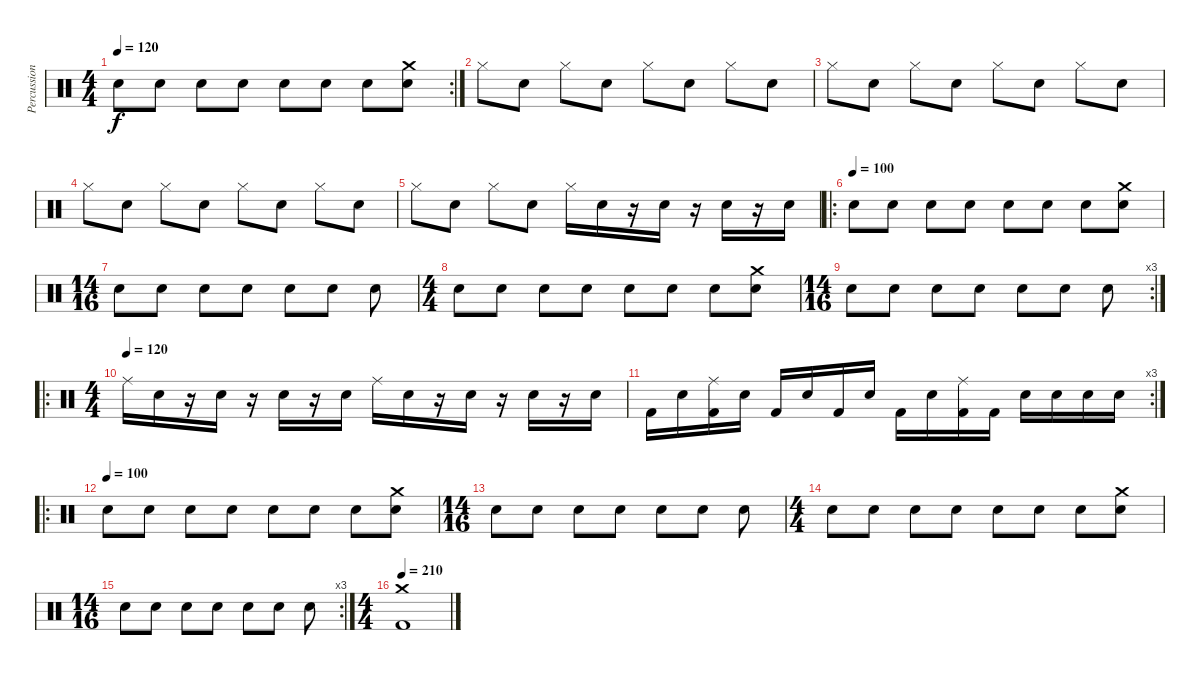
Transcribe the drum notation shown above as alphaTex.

\track ("Percussion" "Percussion") {instrument percussion}
\staff {score}
\articulation defaults
\rc 2
\ts (4 4)
\tempo 120
\clef neutral
\ks c "Electric Snare (hit)".8{dy f} "Electric Snare (hit)".8 "Electric Snare (hit)".8 "Electric Snare (hit)".8 "Electric Snare (hit)".8 "Electric Snare (hit)".8 "Electric Snare (hit)".8
("Crash medium (hit)" "Electric Snare (hit)").8 |
"Hi-Hat (closed)".8 "Electric Snare (hit)".8 "Hi-Hat (closed)".8 "Electric Snare (hit)".8 "Hi-Hat (closed)".8 "Electric Snare (hit)".8 "Hi-Hat (closed)".8 "Electric Snare (hit)".8 |
"Hi-Hat (closed)".8 "Electric Snare (hit)".8 "Hi-Hat (closed)".8 "Electric Snare (hit)".8 "Hi-Hat (closed)".8 "Electric Snare (hit)".8 "Hi-Hat (closed)".8 "Electric Snare (hit)".8 |
"Hi-Hat (closed)".8 "Electric Snare (hit)".8 "Hi-Hat (closed)".8 "Electric Snare (hit)".8 "Hi-Hat (closed)".8 "Electric Snare (hit)".8 "Hi-Hat (closed)".8 "Electric Snare (hit)".8 |
"Hi-Hat (closed)".8 "Electric Snare (hit)".8 "Hi-Hat (closed)".8 "Electric Snare (hit)".8 "Hi-Hat (closed)".16 "Electric Snare (hit)".16 r.16 "Electric Snare (hit)".16 r.16 "Electric Snare (hit)".16 r.16 "Electric Snare (hit)".16 |
\ro
\tempo (100)
"Electric Snare (hit)".8 "Electric Snare (hit)".8 "Electric Snare (hit)".8 "Electric Snare (hit)".8 "Electric Snare (hit)".8 "Electric Snare (hit)".8 "Electric Snare (hit)".8 ("Crash medium (hit)" "Electric Snare (hit)").8 |
\ts (14 16)
"Electric Snare (hit)".8 "Electric Snare (hit)".8 "Electric Snare (hit)".8 "Electric Snare (hit)".8 "Electric Snare (hit)".8 "Electric Snare (hit)".8 "Electric Snare (hit)".8 |
\ts (4 4)
"Electric Snare (hit)".8 "Electric Snare (hit)".8 "Electric Snare (hit)".8 "Electric Snare (hit)".8 "Electric Snare (hit)".8 "Electric Snare (hit)".8 "Electric Snare (hit)".8 ("Crash medium (hit)" "Electric Snare (hit)").8 |
\rc 3
\ts (14 16)
"Electric Snare (hit)".8 "Electric Snare (hit)".8 "Electric Snare (hit)".8 "Electric Snare (hit)".8 "Electric Snare (hit)".8 "Electric Snare (hit)".8 "Electric Snare (hit)".8 |
\ro
\ts (4 4)
\tempo (120)
"Ride (middle)".16 "Electric Snare (hit)".16 r.16 "Electric Snare (hit)".16 r.16 "Electric Snare (hit)".16 r.16 "Electric Snare (hit)".16 "Ride (middle)".16 "Electric Snare (hit)".16 r.16 "Electric Snare (hit)".16 r.16 "Electric Snare (hit)".16 r.16 "Electric Snare (hit)".16 |
\rc 3 "Kick (hit) 2".16 "Electric Snare (hit)".16
("Ride (middle)" "Kick (hit) 2").16 "Electric Snare (hit)".16 "Kick (hit) 2".16 "Electric Snare (hit)".16 "Kick (hit) 2".16 "Electric Snare (hit)".16 "Kick (hit) 2".16 "Electric Snare (hit)".16 ("Ride (middle)" "Kick (hit) 2").16 "Kick (hit) 2".16 "Electric Snare (hit)".16 "Electric Snare (hit)".16 "Electric Snare (hit)".16 "Electric Snare (hit)".16 |
\ro
\tempo (100)
"Electric Snare (hit)".8 "Electric Snare (hit)".8 "Electric Snare (hit)".8 "Electric Snare (hit)".8 "Electric Snare (hit)".8 "Electric Snare (hit)".8 "Electric Snare (hit)".8 ("Crash medium (hit)" "Electric Snare (hit)").8 |
\ts (14 16)
"Electric Snare (hit)".8 "Electric Snare (hit)".8 "Electric Snare (hit)".8 "Electric Snare (hit)".8 "Electric Snare (hit)".8 "Electric Snare (hit)".8 "Electric Snare (hit)".8 |
\ts (4 4)
"Electric Snare (hit)".8 "Electric Snare (hit)".8 "Electric Snare (hit)".8 "Electric Snare (hit)".8 "Electric Snare (hit)".8 "Electric Snare (hit)".8 "Electric Snare (hit)".8 ("Crash medium (hit)" "Electric Snare (hit)").8 |
\rc 3
\ts (14 16)
"Electric Snare (hit)".8 "Electric Snare (hit)".8 "Electric Snare (hit)".8 "Electric Snare (hit)".8 "Electric Snare (hit)".8 "Electric Snare (hit)".8 "Electric Snare (hit)".8 |
\ts (4 4)
\tempo 120
\tempo 210
("Crash medium (hit)" "Kick (hit) 2").1
